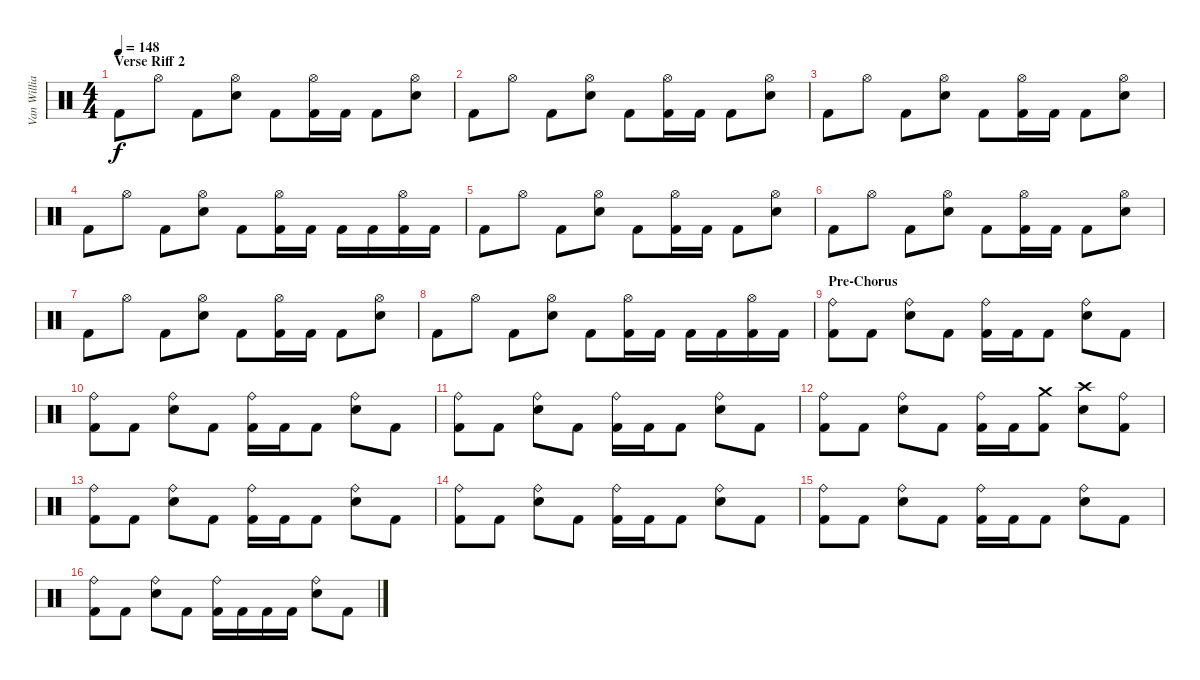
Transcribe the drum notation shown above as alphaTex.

\track ("Van Williams" "Van Willia") {instrument percussion}
\staff {score}
\articulation defaults
\ts (4 4)
\section ("" "Verse Riff 2")
\tempo 148
\clef neutral
\ks c "Kick (hit) 2".8{dy f} "Hi-Hat (open)".8 "Kick (hit) 2".8
("Hi-Hat (open)" "Electric Snare (hit)").8 "Kick (hit) 2".8 ("Hi-Hat (open)" "Kick (hit) 2").16 "Kick (hit) 2".16 "Kick (hit) 2".8 ("Hi-Hat (open)" "Electric Snare (hit)").8 |
"Kick (hit) 2".8 "Hi-Hat (open)".8 "Kick (hit) 2".8 ("Hi-Hat (open)" "Electric Snare (hit)").8 "Kick (hit) 2".8 ("Hi-Hat (open)" "Kick (hit) 2").16 "Kick (hit) 2".16 "Kick (hit) 2".8 ("Hi-Hat (open)" "Electric Snare (hit)").8 |
"Kick (hit) 2".8 "Hi-Hat (open)".8 "Kick (hit) 2".8 ("Hi-Hat (open)" "Electric Snare (hit)").8 "Kick (hit) 2".8 ("Hi-Hat (open)" "Kick (hit) 2").16 "Kick (hit) 2".16 "Kick (hit) 2".8 ("Hi-Hat (open)" "Electric Snare (hit)").8 |
"Kick (hit) 2".8 "Hi-Hat (open)".8 "Kick (hit) 2".8 ("Hi-Hat (open)" "Electric Snare (hit)").8 "Kick (hit) 2".8 ("Hi-Hat (open)" "Kick (hit) 2").16 "Kick (hit) 2".16 "Kick (hit) 2".16 "Kick (hit) 2".16 ("Hi-Hat (open)" "Kick (hit) 2").16 "Kick (hit) 2".16 |
"Kick (hit) 2".8 "Hi-Hat (open)".8 "Kick (hit) 2".8 ("Hi-Hat (open)" "Electric Snare (hit)").8 "Kick (hit) 2".8 ("Hi-Hat (open)" "Kick (hit) 2").16 "Kick (hit) 2".16 "Kick (hit) 2".8 ("Hi-Hat (open)" "Electric Snare (hit)").8 |
"Kick (hit) 2".8 "Hi-Hat (open)".8 "Kick (hit) 2".8 ("Hi-Hat (open)" "Electric Snare (hit)").8 "Kick (hit) 2".8 ("Hi-Hat (open)" "Kick (hit) 2").16 "Kick (hit) 2".16 "Kick (hit) 2".8 ("Hi-Hat (open)" "Electric Snare (hit)").8 |
"Kick (hit) 2".8 "Hi-Hat (open)".8 "Kick (hit) 2".8 ("Hi-Hat (open)" "Electric Snare (hit)").8 "Kick (hit) 2".8 ("Hi-Hat (open)" "Kick (hit) 2").16 "Kick (hit) 2".16 "Kick (hit) 2".8 ("Hi-Hat (open)" "Electric Snare (hit)").8 |
"Kick (hit) 2".8 "Hi-Hat (open)".8 "Kick (hit) 2".8 ("Hi-Hat (open)" "Electric Snare (hit)").8 "Kick (hit) 2".8 ("Hi-Hat (open)" "Kick (hit) 2").16 "Kick (hit) 2".16 "Kick (hit) 2".16 "Kick (hit) 2".16 ("Hi-Hat (open)" "Kick (hit) 2").16 "Kick (hit) 2".16 |
\section ("" "Pre-Chorus")
("Ride (bell)" "Kick (hit) 2").8 "Kick (hit) 2".8 ("Ride (bell)" "Electric Snare (hit)").8 "Kick (hit) 2".8 ("Ride (bell)" "Kick (hit) 2").16 "Kick (hit) 2".16 "Kick (hit) 2".8 ("Ride (bell)" "Electric Snare (hit)").8 "Kick (hit) 2".8 |
("Ride (bell)" "Kick (hit) 2").8 "Kick (hit) 2".8 ("Ride (bell)" "Electric Snare (hit)").8 "Kick (hit) 2".8 ("Ride (bell)" "Kick (hit) 2").16 "Kick (hit) 2".16 "Kick (hit) 2".8 ("Ride (bell)" "Electric Snare (hit)").8 "Kick (hit) 2".8 |
("Ride (bell)" "Kick (hit) 2").8 "Kick (hit) 2".8 ("Ride (bell)" "Electric Snare (hit)").8 "Kick (hit) 2".8 ("Ride (bell)" "Kick (hit) 2").16 "Kick (hit) 2".16 "Kick (hit) 2".8 ("Ride (bell)" "Electric Snare (hit)").8 "Kick (hit) 2".8 |
("Ride (bell)" "Kick (hit) 2").8 "Kick (hit) 2".8 ("Ride (bell)" "Electric Snare (hit)").8 "Kick (hit) 2".8 ("Ride (bell)" "Kick (hit) 2").16 "Kick (hit) 2".16 ("Crash medium (hit)" "Kick (hit) 2").8 ("Crash high (hit)" "Electric Snare (hit)").8 ("Ride (bell)" "Kick (hit) 2").8 |
("Ride (bell)" "Kick (hit) 2").8 "Kick (hit) 2".8 ("Ride (bell)" "Electric Snare (hit)").8 "Kick (hit) 2".8 ("Ride (bell)" "Kick (hit) 2").16 "Kick (hit) 2".16 "Kick (hit) 2".8 ("Ride (bell)" "Electric Snare (hit)").8 "Kick (hit) 2".8 |
("Ride (bell)" "Kick (hit) 2").8 "Kick (hit) 2".8 ("Ride (bell)" "Electric Snare (hit)").8 "Kick (hit) 2".8 ("Ride (bell)" "Kick (hit) 2").16 "Kick (hit) 2".16 "Kick (hit) 2".8 ("Ride (bell)" "Electric Snare (hit)").8 "Kick (hit) 2".8 |
("Ride (bell)" "Kick (hit) 2").8 "Kick (hit) 2".8 ("Ride (bell)" "Electric Snare (hit)").8 "Kick (hit) 2".8 ("Ride (bell)" "Kick (hit) 2").16 "Kick (hit) 2".16 "Kick (hit) 2".8 ("Ride (bell)" "Electric Snare (hit)").8 "Kick (hit) 2".8 |
("Ride (bell)" "Kick (hit) 2").8 "Kick (hit) 2".8 ("Ride (bell)" "Electric Snare (hit)").8 "Kick (hit) 2".8 ("Ride (bell)" "Kick (hit) 2").16 "Kick (hit) 2".16 "Kick (hit) 2".16 "Kick (hit) 2".16 ("Ride (bell)" "Electric Snare (hit)").8 "Kick (hit) 2".8
